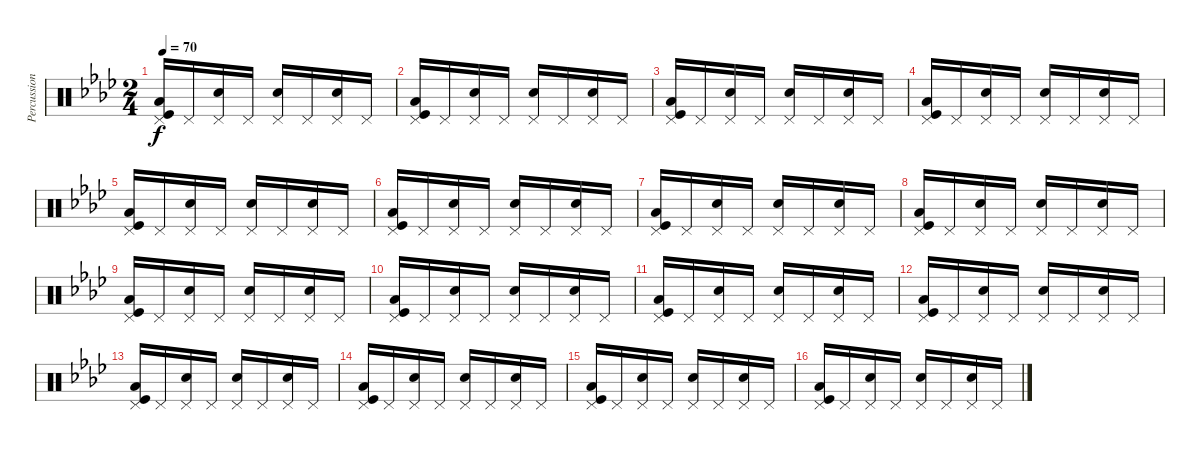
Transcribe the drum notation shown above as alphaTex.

\track ("Percussion" "Percussion") {instrument percussion}
\staff {score}
\articulation defaults
\ts (2 4)
\tempo 70
\clef neutral
\ks fminor
("Kick (hit)" "Pedal Hi-Hat (hit)" "Low Floor Tom (hit)").16{dy f} "Pedal Hi-Hat (hit)".16 ("Electric Snare (hit)" "Pedal Hi-Hat (hit)").16 "Pedal Hi-Hat (hit)".16 ("Electric Snare (hit)" "Pedal Hi-Hat (hit)").16 "Pedal Hi-Hat (hit)".16 ("Electric Snare (hit)" "Pedal Hi-Hat (hit)").16 "Pedal Hi-Hat (hit)".16 |
("Kick (hit)" "Pedal Hi-Hat (hit)" "Low Floor Tom (hit)").16 "Pedal Hi-Hat (hit)".16 ("Electric Snare (hit)" "Pedal Hi-Hat (hit)").16 "Pedal Hi-Hat (hit)".16 ("Electric Snare (hit)" "Pedal Hi-Hat (hit)").16 "Pedal Hi-Hat (hit)".16 ("Electric Snare (hit)" "Pedal Hi-Hat (hit)").16 "Pedal Hi-Hat (hit)".16 |
("Kick (hit)" "Pedal Hi-Hat (hit)" "Low Floor Tom (hit)").16 "Pedal Hi-Hat (hit)".16 ("Electric Snare (hit)" "Pedal Hi-Hat (hit)").16 "Pedal Hi-Hat (hit)".16 ("Electric Snare (hit)" "Pedal Hi-Hat (hit)").16 "Pedal Hi-Hat (hit)".16 ("Electric Snare (hit)" "Pedal Hi-Hat (hit)").16 "Pedal Hi-Hat (hit)".16 |
("Kick (hit)" "Pedal Hi-Hat (hit)" "Low Floor Tom (hit)").16 "Pedal Hi-Hat (hit)".16 ("Electric Snare (hit)" "Pedal Hi-Hat (hit)").16 "Pedal Hi-Hat (hit)".16 ("Electric Snare (hit)" "Pedal Hi-Hat (hit)").16 "Pedal Hi-Hat (hit)".16 ("Electric Snare (hit)" "Pedal Hi-Hat (hit)").16 "Pedal Hi-Hat (hit)".16 |
("Kick (hit)" "Pedal Hi-Hat (hit)" "Low Floor Tom (hit)").16 "Pedal Hi-Hat (hit)".16 ("Electric Snare (hit)" "Pedal Hi-Hat (hit)").16 "Pedal Hi-Hat (hit)".16 ("Electric Snare (hit)" "Pedal Hi-Hat (hit)").16 "Pedal Hi-Hat (hit)".16 ("Electric Snare (hit)" "Pedal Hi-Hat (hit)").16 "Pedal Hi-Hat (hit)".16 |
("Kick (hit)" "Pedal Hi-Hat (hit)" "Low Floor Tom (hit)").16 "Pedal Hi-Hat (hit)".16 ("Electric Snare (hit)" "Pedal Hi-Hat (hit)").16 "Pedal Hi-Hat (hit)".16 ("Electric Snare (hit)" "Pedal Hi-Hat (hit)").16 "Pedal Hi-Hat (hit)".16 ("Electric Snare (hit)" "Pedal Hi-Hat (hit)").16 "Pedal Hi-Hat (hit)".16 |
("Kick (hit)" "Pedal Hi-Hat (hit)" "Low Floor Tom (hit)").16 "Pedal Hi-Hat (hit)".16 ("Electric Snare (hit)" "Pedal Hi-Hat (hit)").16 "Pedal Hi-Hat (hit)".16 ("Electric Snare (hit)" "Pedal Hi-Hat (hit)").16 "Pedal Hi-Hat (hit)".16 ("Electric Snare (hit)" "Pedal Hi-Hat (hit)").16 "Pedal Hi-Hat (hit)".16 |
("Kick (hit)" "Pedal Hi-Hat (hit)" "Low Floor Tom (hit)").16 "Pedal Hi-Hat (hit)".16 ("Electric Snare (hit)" "Pedal Hi-Hat (hit)").16 "Pedal Hi-Hat (hit)".16 ("Electric Snare (hit)" "Pedal Hi-Hat (hit)").16 "Pedal Hi-Hat (hit)".16 ("Electric Snare (hit)" "Pedal Hi-Hat (hit)").16 "Pedal Hi-Hat (hit)".16 |
("Kick (hit)" "Pedal Hi-Hat (hit)" "Low Floor Tom (hit)").16 "Pedal Hi-Hat (hit)".16 ("Electric Snare (hit)" "Pedal Hi-Hat (hit)").16 "Pedal Hi-Hat (hit)".16 ("Electric Snare (hit)" "Pedal Hi-Hat (hit)").16 "Pedal Hi-Hat (hit)".16 ("Electric Snare (hit)" "Pedal Hi-Hat (hit)").16 "Pedal Hi-Hat (hit)".16 |
("Kick (hit)" "Pedal Hi-Hat (hit)" "Low Floor Tom (hit)").16 "Pedal Hi-Hat (hit)".16 ("Electric Snare (hit)" "Pedal Hi-Hat (hit)").16 "Pedal Hi-Hat (hit)".16 ("Electric Snare (hit)" "Pedal Hi-Hat (hit)").16 "Pedal Hi-Hat (hit)".16 ("Electric Snare (hit)" "Pedal Hi-Hat (hit)").16 "Pedal Hi-Hat (hit)".16 |
("Kick (hit)" "Pedal Hi-Hat (hit)" "Low Floor Tom (hit)").16 "Pedal Hi-Hat (hit)".16 ("Electric Snare (hit)" "Pedal Hi-Hat (hit)").16 "Pedal Hi-Hat (hit)".16 ("Electric Snare (hit)" "Pedal Hi-Hat (hit)").16 "Pedal Hi-Hat (hit)".16 ("Electric Snare (hit)" "Pedal Hi-Hat (hit)").16 "Pedal Hi-Hat (hit)".16 |
("Kick (hit)" "Pedal Hi-Hat (hit)" "Low Floor Tom (hit)").16 "Pedal Hi-Hat (hit)".16 ("Electric Snare (hit)" "Pedal Hi-Hat (hit)").16 "Pedal Hi-Hat (hit)".16 ("Electric Snare (hit)" "Pedal Hi-Hat (hit)").16 "Pedal Hi-Hat (hit)".16 ("Electric Snare (hit)" "Pedal Hi-Hat (hit)").16 "Pedal Hi-Hat (hit)".16 |
("Kick (hit)" "Pedal Hi-Hat (hit)" "Low Floor Tom (hit)").16 "Pedal Hi-Hat (hit)".16 ("Electric Snare (hit)" "Pedal Hi-Hat (hit)").16 "Pedal Hi-Hat (hit)".16 ("Electric Snare (hit)" "Pedal Hi-Hat (hit)").16 "Pedal Hi-Hat (hit)".16 ("Electric Snare (hit)" "Pedal Hi-Hat (hit)").16 "Pedal Hi-Hat (hit)".16 |
("Kick (hit)" "Pedal Hi-Hat (hit)" "Low Floor Tom (hit)").16 "Pedal Hi-Hat (hit)".16 ("Electric Snare (hit)" "Pedal Hi-Hat (hit)").16 "Pedal Hi-Hat (hit)".16 ("Electric Snare (hit)" "Pedal Hi-Hat (hit)").16 "Pedal Hi-Hat (hit)".16 ("Electric Snare (hit)" "Pedal Hi-Hat (hit)").16 "Pedal Hi-Hat (hit)".16 |
("Kick (hit)" "Pedal Hi-Hat (hit)" "Low Floor Tom (hit)").16 "Pedal Hi-Hat (hit)".16 ("Electric Snare (hit)" "Pedal Hi-Hat (hit)").16 "Pedal Hi-Hat (hit)".16 ("Electric Snare (hit)" "Pedal Hi-Hat (hit)").16 "Pedal Hi-Hat (hit)".16 ("Electric Snare (hit)" "Pedal Hi-Hat (hit)").16 "Pedal Hi-Hat (hit)".16 |
("Kick (hit)" "Pedal Hi-Hat (hit)" "Low Floor Tom (hit)").16 "Pedal Hi-Hat (hit)".16 ("Electric Snare (hit)" "Pedal Hi-Hat (hit)").16 "Pedal Hi-Hat (hit)".16 ("Electric Snare (hit)" "Pedal Hi-Hat (hit)").16 "Pedal Hi-Hat (hit)".16 ("Electric Snare (hit)" "Pedal Hi-Hat (hit)").16 "Pedal Hi-Hat (hit)".16
